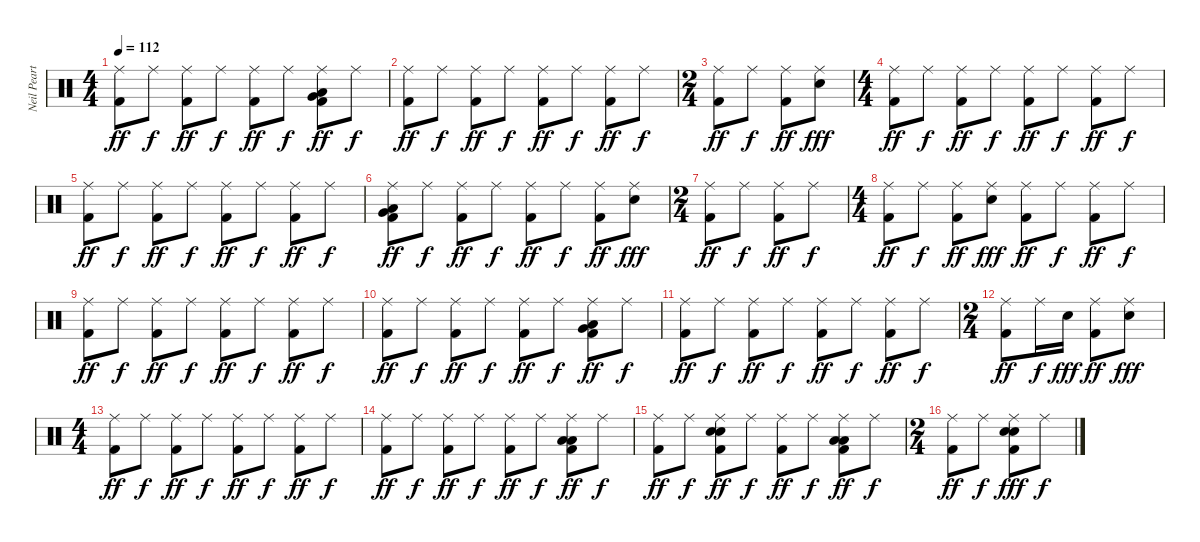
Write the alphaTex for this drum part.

\track ("Neil Peart" "Neil Peart") {instrument percussion}
\staff {score}
\articulation defaults
\ts (4 4)
\tempo 112
\clef neutral
\ks c
("Kick (hit) 2" "Ride (middle)").8{dy ff} "Ride (middle)".8{dy f} ("Kick (hit) 2" "Ride (middle)").8{dy ff} "Ride (middle)".8{dy f} ("Kick (hit) 2" "Ride (middle)").8{dy ff} "Ride (middle)".8{dy f} ("Very Low Tom (hit)" "Ride (middle)" "Low Tom (hit)" "Kick (hit) 2").8{dy ff} "Ride (middle)".8{dy f} |
("Kick (hit) 2" "Ride (middle)").8{dy ff} "Ride (middle)".8{dy f} ("Kick (hit) 2" "Ride (middle)").8{dy ff} "Ride (middle)".8{dy f} ("Kick (hit) 2" "Ride (middle)").8{dy ff} "Ride (middle)".8{dy f} ("Kick (hit) 2" "Ride (middle)").8{dy ff} "Ride (middle)".8{dy f} |
\ts (2 4)
("Kick (hit) 2" "Ride (middle)").8{dy ff} "Ride (middle)".8{dy f} ("Kick (hit) 2" "Ride (middle)").8{dy ff} ("Snare (hit) 2" "Ride (middle)").8{dy fff} |
\ts (4 4)
("Kick (hit) 2" "Ride (middle)").8{dy ff} "Ride (middle)".8{dy f} ("Kick (hit) 2" "Ride (middle)").8{dy ff} "Ride (middle)".8{dy f} ("Kick (hit) 2" "Ride (middle)").8{dy ff} "Ride (middle)".8{dy f} ("Kick (hit) 2" "Ride (middle)").8{dy ff} "Ride (middle)".8{dy f} |
("Kick (hit) 2" "Ride (middle)").8{dy ff} "Ride (middle)".8{dy f} ("Kick (hit) 2" "Ride (middle)").8{dy ff} "Ride (middle)".8{dy f} ("Kick (hit) 2" "Ride (middle)").8{dy ff} "Ride (middle)".8{dy f} ("Kick (hit) 2" "Ride (middle)").8{dy ff} "Ride (middle)".8{dy f} |
("Very Low Tom (hit)" "Ride (middle)" "Low Tom (hit)" "Kick (hit) 2").8{dy ff} "Ride (middle)".8{dy f} ("Kick (hit) 2" "Ride (middle)").8{dy ff} "Ride (middle)".8{dy f} ("Kick (hit) 2" "Ride (middle)").8{dy ff} "Ride (middle)".8{dy f} ("Kick (hit) 2" "Ride (middle)").8{dy ff} ("Snare (hit) 2" "Ride (middle)").8{dy fff} |
\ts (2 4)
("Ride (middle)" "Kick (hit) 2").8{dy ff} "Ride (middle)".8{dy f} ("Ride (middle)" "Kick (hit) 2").8{dy ff} "Ride (middle)".8{dy f} |
\ts (4 4)
("Ride (middle)" "Kick (hit) 2").8{dy ff} "Ride (middle)".8{dy f} ("Ride (middle)" "Kick (hit) 2").8{dy ff} ("Ride (middle)" "Snare (hit) 2").8{dy fff} ("Ride (middle)" "Kick (hit) 2").8{dy ff} "Ride (middle)".8{dy f} ("Ride (middle)" "Kick (hit) 2").8{dy ff} "Ride (middle)".8{dy f} |
("Kick (hit) 2" "Ride (middle)").8{dy ff} "Ride (middle)".8{dy f} ("Kick (hit) 2" "Ride (middle)").8{dy ff} "Ride (middle)".8{dy f} ("Kick (hit) 2" "Ride (middle)").8{dy ff} "Ride (middle)".8{dy f} ("Kick (hit) 2" "Ride (middle)").8{dy ff} "Ride (middle)".8{dy f} |
("Kick (hit) 2" "Ride (middle)").8{dy ff} "Ride (middle)".8{dy f} ("Kick (hit) 2" "Ride (middle)").8{dy ff} "Ride (middle)".8{dy f} ("Kick (hit) 2" "Ride (middle)").8{dy ff} "Ride (middle)".8{dy f} ("Very Low Tom (hit)" "Ride (middle)" "Low Tom (hit)" "Kick (hit) 2").8{dy ff} "Ride (middle)".8{dy f} |
("Kick (hit) 2" "Ride (middle)").8{dy ff} "Ride (middle)".8{dy f} ("Kick (hit) 2" "Ride (middle)").8{dy ff} "Ride (middle)".8{dy f} ("Kick (hit) 2" "Ride (middle)").8{dy ff} "Ride (middle)".8{dy f} ("Kick (hit) 2" "Ride (middle)").8{dy ff} "Ride (middle)".8{dy f} |
\ts (2 4)
("Ride (middle)" "Kick (hit) 2").8{dy ff} "Ride (middle)".16{dy f} "Snare (hit) 2".16{dy fff} ("Ride (middle)" "Kick (hit) 2").8{dy ff} ("Snare (hit) 2" "Ride (middle)").8{dy fff} |
\ts (4 4)
("Kick (hit) 2" "Ride (middle)").8{dy ff} "Ride (middle)".8{dy f} ("Kick (hit) 2" "Ride (middle)").8{dy ff} "Ride (middle)".8{dy f} ("Kick (hit) 2" "Ride (middle)").8{dy ff} "Ride (middle)".8{dy f} ("Kick (hit) 2" "Ride (middle)").8{dy ff} "Ride (middle)".8{dy f} |
("Kick (hit) 2" "Ride (middle)").8{dy ff} "Ride (middle)".8{dy f} ("Kick (hit) 2" "Ride (middle)").8{dy ff} "Ride (middle)".8{dy f} ("Kick (hit) 2" "Ride (middle)").8{dy ff} "Ride (middle)".8{dy f} ("Low Floor Tom (hit)" "Low Tom (hit)" "Kick (hit) 2" "Ride (middle)").8{dy ff} "Ride (middle)".8{dy f} |
("Kick (hit) 2" "Ride (middle)").8{dy ff} "Ride (middle)".8{dy f} ("Snare (hit) 2" "Snare (hit) 2" "Kick (hit) 2" "Ride (middle)").8{dy ff} "Ride (middle)".8{dy f} ("Kick (hit) 2" "Ride (middle)").8{dy ff} "Ride (middle)".8{dy f} ("Low Floor Tom (hit)" "Low Tom (hit)" "Kick (hit) 2" "Ride (middle)").8{dy ff} "Ride (middle)".8{dy f} |
\ts (2 4)
("Ride (middle)" "Kick (hit) 2").8{dy ff} "Ride (middle)".8{dy f} ("Snare (hit) 2" "Ride (middle)" "Kick (hit) 2" "Snare (hit) 2").8{dy fff} "Ride (middle)".8{dy f}
